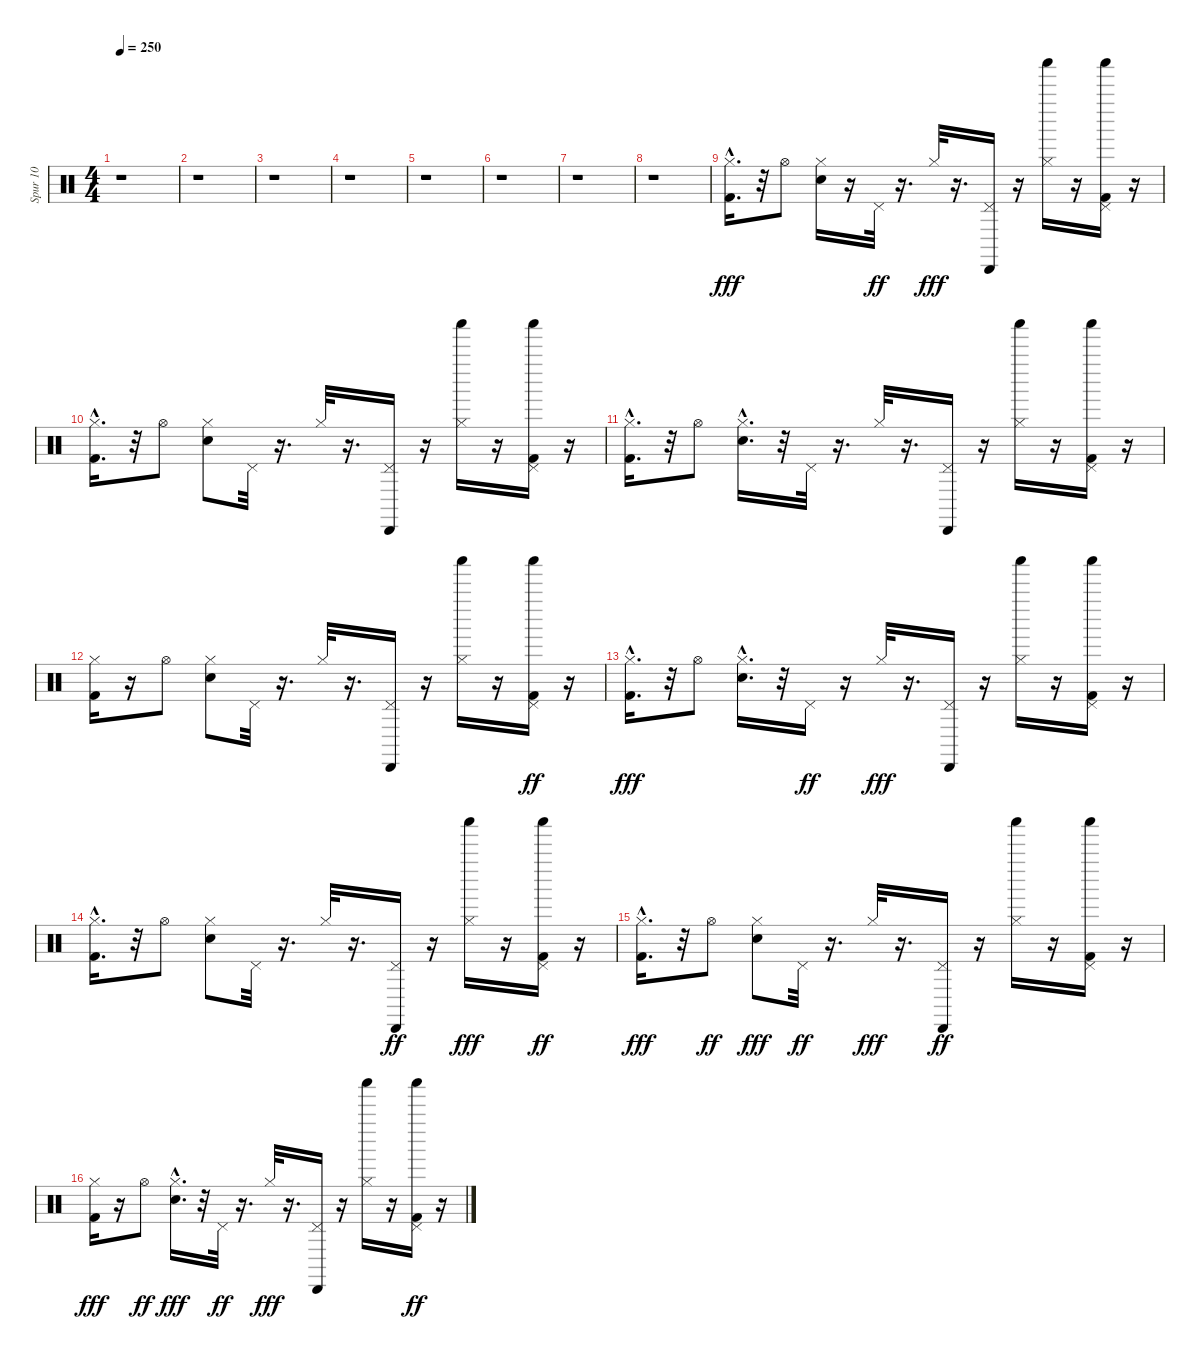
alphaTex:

\track ("Spur 10" "Spur 10") {instrument percussion}
\staff {score}
\articulation defaults
\ts (4 4)
\tempo 250
\tempo 103
\tempo 250
\clef neutral
\ks c
r.1{dy fff} |
r.1 |
r.1 |
r.1 |
r.1 |
r.1 |
r.1 |
r.1 |
("Kick (hit) 2"{hac} "Hi-Hat (closed)").16{d} r.32 "Hi-Hat (open)".8 ("Snare (hit) 2" "Hi-Hat (closed)").16 r.16 "Pedal Hi-Hat (hit)".32{dy ff} r.16{d} "Hi-Hat (closed)".32{dy fff} r.16{d} ("Pedal Hi-Hat (hit)" "Cabasa (hit)").16 r.16 ("Hi-Hat (closed)" "Shaker (hit)").16 r.16 ("Kick (hit) 2" "Pedal Hi-Hat (hit)" "Shaker (hit)").16 r.16 |
("Kick (hit) 2"{hac} "Hi-Hat (closed)").16{d} r.32 "Hi-Hat (open)".8 ("Snare (hit) 2" "Hi-Hat (closed)").8 "Pedal Hi-Hat (hit)".32 r.16{d} "Hi-Hat (closed)".32 r.16{d} ("Pedal Hi-Hat (hit)" "Cabasa (hit)").16 r.16 ("Hi-Hat (closed)" "Shaker (hit)").16 r.16 ("Kick (hit) 2" "Pedal Hi-Hat (hit)" "Shaker (hit)").16 r.16 |
("Kick (hit) 2"{hac} "Hi-Hat (closed)").16{d} r.32 "Hi-Hat (open)".8 ("Snare (hit) 2"{hac} "Hi-Hat (closed)").16{d} r.32 "Pedal Hi-Hat (hit)".32 r.16{d} "Hi-Hat (closed)".32 r.16{d} ("Pedal Hi-Hat (hit)" "Cabasa (hit)").16 r.16 ("Hi-Hat (closed)" "Shaker (hit)").16 r.16 ("Kick (hit) 2" "Pedal Hi-Hat (hit)" "Shaker (hit)").16 r.16 |
("Kick (hit) 2" "Hi-Hat (closed)").16 r.16 "Hi-Hat (open)".8 ("Snare (hit) 2" "Hi-Hat (closed)").8 "Pedal Hi-Hat (hit)".32 r.16{d} "Hi-Hat (closed)".32 r.16{d} ("Pedal Hi-Hat (hit)" "Cabasa (hit)").16 r.16 ("Hi-Hat (closed)" "Shaker (hit)").16 r.16 ("Kick (hit) 2" "Pedal Hi-Hat (hit)" "Shaker (hit)").16{dy ff} r.16 |
("Kick (hit) 2"{hac} "Hi-Hat (closed)").16{d dy fff} r.32 "Hi-Hat (open)".8 ("Snare (hit) 2"{hac} "Hi-Hat (closed)").16{d} r.32 "Pedal Hi-Hat (hit)".16{dy ff} r.16 "Hi-Hat (closed)".32{dy fff} r.16{d} ("Pedal Hi-Hat (hit)" "Cabasa (hit)").16 r.16 ("Hi-Hat (closed)" "Shaker (hit)").16 r.16 ("Kick (hit) 2" "Pedal Hi-Hat (hit)" "Shaker (hit)").16 r.16 |
("Kick (hit) 2"{hac} "Hi-Hat (closed)").16{d} r.32 "Hi-Hat (open)".8 ("Snare (hit) 2" "Hi-Hat (closed)").8 "Pedal Hi-Hat (hit)".32 r.16{d} "Hi-Hat (closed)".32 r.16{d} ("Pedal Hi-Hat (hit)" "Cabasa (hit)").16{dy ff} r.16 ("Hi-Hat (closed)" "Shaker (hit)").16{dy fff} r.16 ("Kick (hit) 2" "Pedal Hi-Hat (hit)" "Shaker (hit)").16{dy ff} r.16 |
("Kick (hit) 2"{hac} "Hi-Hat (closed)").16{d dy fff} r.32 "Hi-Hat (open)".8{dy ff} ("Snare (hit) 2" "Hi-Hat (closed)").8{dy fff} "Pedal Hi-Hat (hit)".32{dy ff} r.16{d} "Hi-Hat (closed)".32{dy fff} r.16{d} ("Pedal Hi-Hat (hit)" "Cabasa (hit)").16{dy ff} r.16 ("Hi-Hat (closed)" "Shaker (hit)").16 r.16 ("Kick (hit) 2" "Pedal Hi-Hat (hit)" "Shaker (hit)").16 r.16 |
("Kick (hit) 2" "Hi-Hat (closed)").16{dy fff} r.16 "Hi-Hat (open)".8{dy ff} ("Snare (hit) 2"{hac} "Hi-Hat (closed)").16{d dy fff} r.32 "Pedal Hi-Hat (hit)".32{dy ff} r.16{d} "Hi-Hat (closed)".32{dy fff} r.16{d} ("Pedal Hi-Hat (hit)" "Cabasa (hit)").16 r.16 ("Hi-Hat (closed)" "Shaker (hit)").16 r.16 ("Kick (hit) 2" "Pedal Hi-Hat (hit)" "Shaker (hit)").16{dy ff} r.16
